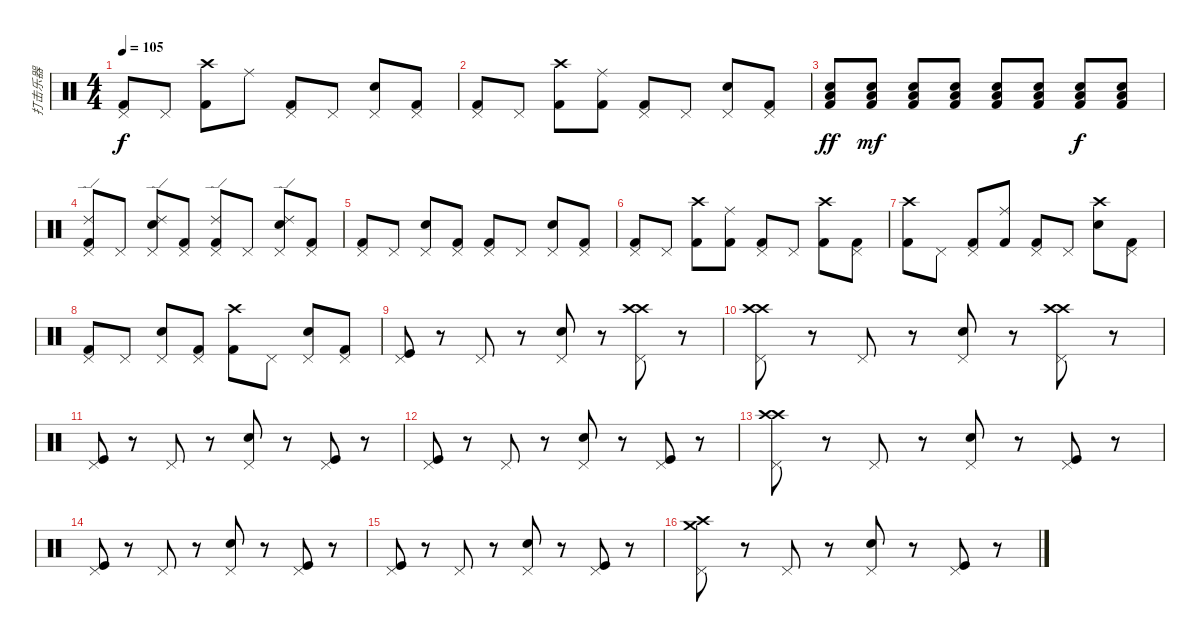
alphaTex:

\track ("打击乐器" "打击乐器") {instrument percussion}
\staff {score}
\articulation defaults
\ts (4 4)
\tempo 105
\clef neutral
\ks c
("Pedal Hi-Hat (hit)" "Kick (hit) 2").8{dy f} "Pedal Hi-Hat (hit)".8 ("Crash high (hit)" "Kick (hit) 2").8 "Ride (middle)".8 ("Pedal Hi-Hat (hit)" "Kick (hit) 2").8 "Pedal Hi-Hat (hit)".8 ("Pedal Hi-Hat (hit)" "Snare (hit) 2").8 ("Pedal Hi-Hat (hit)" "Kick (hit) 2").8 |
("Pedal Hi-Hat (hit)" "Kick (hit) 2").8 "Pedal Hi-Hat (hit)".8 ("Crash high (hit)" "Kick (hit) 2").8 ("Ride (middle)" "Kick (hit) 2").8 ("Pedal Hi-Hat (hit)" "Kick (hit) 2").8 "Pedal Hi-Hat (hit)".8 ("Pedal Hi-Hat (hit)" "Snare (hit) 2").8 ("Pedal Hi-Hat (hit)" "Kick (hit) 2").8 |
("Low Tom (hit)" "Snare (hit) 2" "Kick (hit) 2").8{dy ff} ("Kick (hit) 2" "Snare (hit) 2" "Low Tom (hit)").8{dy mf} ("Kick (hit) 2" "Snare (hit) 2" "Low Tom (hit)").8 ("Kick (hit) 2" "Snare (hit) 2" "Low Tom (hit)").8 ("Kick (hit) 2" "Snare (hit) 2" "Low Tom (hit)").8 ("Kick (hit) 2" "Snare (hit) 2" "Low Tom (hit)").8 ("Kick (hit) 2" "Snare (hit) 2" "Low Tom (hit)").8{dy f} ("Kick (hit) 2" "Snare (hit) 2" "Low Tom (hit)").8 |
("Ride (edge) 2" "Pedal Hi-Hat (hit)" "Kick (hit) 2").8 "Pedal Hi-Hat (hit)".8 ("Ride (edge) 2" "Pedal Hi-Hat (hit)" "Snare (hit) 2").8 ("Pedal Hi-Hat (hit)" "Kick (hit) 2").8 ("Ride (edge) 2" "Pedal Hi-Hat (hit)" "Kick (hit) 2").8 "Pedal Hi-Hat (hit)".8 ("Ride (edge) 2" "Pedal Hi-Hat (hit)" "Snare (hit) 2").8 ("Pedal Hi-Hat (hit)" "Kick (hit) 2").8 |
("Pedal Hi-Hat (hit)" "Kick (hit) 2").8 "Pedal Hi-Hat (hit)".8 ("Pedal Hi-Hat (hit)" "Snare (hit) 2").8 ("Pedal Hi-Hat (hit)" "Kick (hit) 2").8 ("Pedal Hi-Hat (hit)" "Kick (hit) 2").8 "Pedal Hi-Hat (hit)".8 ("Pedal Hi-Hat (hit)" "Snare (hit) 2").8 ("Pedal Hi-Hat (hit)" "Kick (hit) 2").8 |
("Pedal Hi-Hat (hit)" "Kick (hit) 2").8 "Pedal Hi-Hat (hit)".8 ("Crash high (hit)" "Kick (hit) 2").8 ("Ride (middle)" "Kick (hit) 2").8 ("Pedal Hi-Hat (hit)" "Kick (hit) 2").8 "Pedal Hi-Hat (hit)".8 ("Crash high (hit)" "Kick (hit) 2").8 ("Pedal Hi-Hat (hit)" "Kick (hit) 2").8 |
("Crash high (hit)" "Kick (hit) 2").8 "Pedal Hi-Hat (hit)".8 ("Pedal Hi-Hat (hit)" "Kick (hit) 2").8 ("Ride (middle)" "Kick (hit) 2").8 ("Pedal Hi-Hat (hit)" "Kick (hit) 2").8 "Pedal Hi-Hat (hit)".8 ("Crash high (hit)" "Snare (hit)").8 ("Pedal Hi-Hat (hit)" "Kick (hit) 2").8 |
("Pedal Hi-Hat (hit)" "Kick (hit) 2").8 "Pedal Hi-Hat (hit)".8 ("Pedal Hi-Hat (hit)" "Snare (hit) 2").8 ("Pedal Hi-Hat (hit)" "Kick (hit) 2").8 ("Crash high (hit)" "Kick (hit) 2").8 "Pedal Hi-Hat (hit)".8 ("Pedal Hi-Hat (hit)" "Snare (hit) 2").8 ("Pedal Hi-Hat (hit)" "Kick (hit) 2").8 |
("Kick (hit)" "Pedal Hi-Hat (hit)").8 r.8 "Pedal Hi-Hat (hit)".8 r.8 ("Snare (hit) 2" "Pedal Hi-Hat (hit)").8 r.8 ("Crash high (hit)" "Pedal Hi-Hat (hit)" "Crash high (hit)").8 r.8 |
("Crash high (hit)" "Pedal Hi-Hat (hit)" "Crash high (hit)").8 r.8 "Pedal Hi-Hat (hit)".8 r.8 ("Snare (hit) 2" "Pedal Hi-Hat (hit)").8 r.8 ("Crash high (hit)" "Pedal Hi-Hat (hit)" "Crash high (hit)").8 r.8 |
("Kick (hit)" "Pedal Hi-Hat (hit)").8 r.8 "Pedal Hi-Hat (hit)".8 r.8 ("Snare (hit) 2" "Pedal Hi-Hat (hit)").8 r.8 ("Kick (hit)" "Pedal Hi-Hat (hit)").8 r.8 |
("Kick (hit)" "Pedal Hi-Hat (hit)").8 r.8 "Pedal Hi-Hat (hit)".8 r.8 ("Snare (hit) 2" "Pedal Hi-Hat (hit)").8 r.8 ("Kick (hit)" "Pedal Hi-Hat (hit)").8 r.8 |
("Crash high (hit)" "Pedal Hi-Hat (hit)" "Crash high (hit)").8 r.8 "Pedal Hi-Hat (hit)".8 r.8 ("Snare (hit) 2" "Pedal Hi-Hat (hit)").8 r.8 ("Kick (hit)" "Pedal Hi-Hat (hit)").8 r.8 |
("Kick (hit)" "Pedal Hi-Hat (hit)").8 r.8 "Pedal Hi-Hat (hit)".8 r.8 ("Snare (hit) 2" "Pedal Hi-Hat (hit)").8 r.8 ("Kick (hit)" "Pedal Hi-Hat (hit)").8 r.8 |
("Kick (hit)" "Pedal Hi-Hat (hit)").8 r.8 "Pedal Hi-Hat (hit)".8 r.8 ("Snare (hit) 2" "Pedal Hi-Hat (hit)").8 r.8 ("Kick (hit)" "Pedal Hi-Hat (hit)").8 r.8 |
("Crash high (hit)" "Pedal Hi-Hat (hit)" "Crash medium (hit)").8 r.8 "Pedal Hi-Hat (hit)".8 r.8 ("Snare (hit) 2" "Pedal Hi-Hat (hit)").8 r.8 ("Kick (hit)" "Pedal Hi-Hat (hit)").8 r.8
